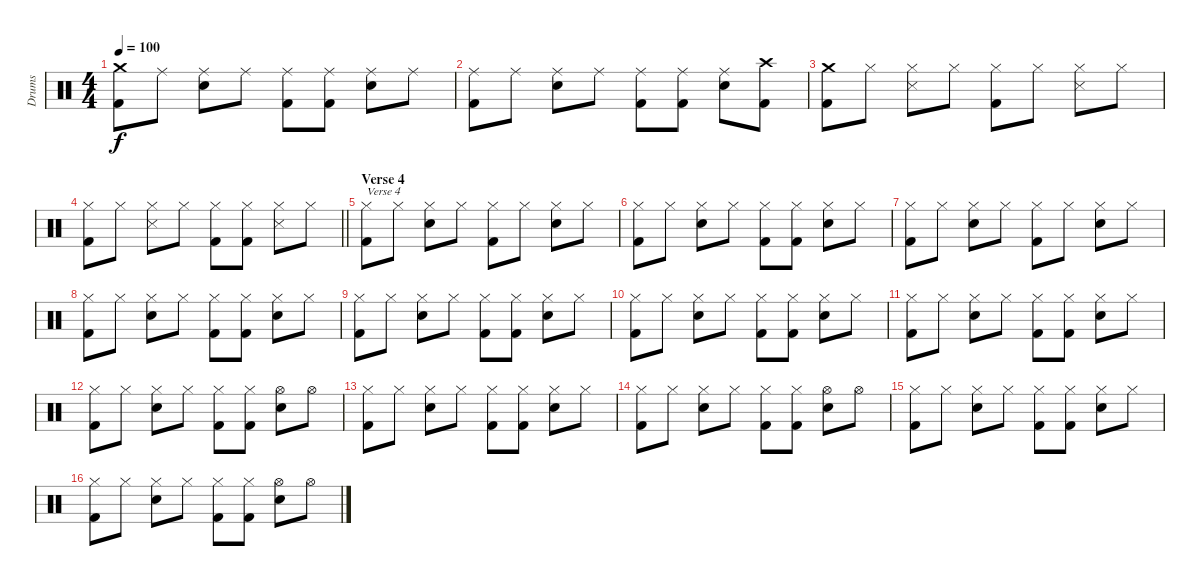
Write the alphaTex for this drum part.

\track ("Drums" "Drums") {instrument percussion}
\staff {score}
\articulation defaults
\ts (4 4)
\tempo 100
\clef neutral
\ks c
("Kick (hit) 2" "Crash medium (hit)").8{dy f} "Ride (middle)".8 ("Electric Snare (hit)" "Ride (middle)").8 "Ride (middle)".8 ("Kick (hit) 2" "Ride (middle)").8 ("Kick (hit) 2" "Ride (middle)").8 ("Electric Snare (hit)" "Ride (middle)").8 "Ride (middle)".8 |
("Kick (hit) 2" "Ride (middle)").8 "Ride (middle)".8 ("Electric Snare (hit)" "Ride (middle)").8 "Ride (middle)".8 ("Kick (hit) 2" "Ride (middle)").8 ("Kick (hit) 2" "Ride (middle)").8 ("Electric Snare (hit)" "Ride (middle)").8 ("Kick (hit) 2" "Crash high (hit)").8 |
("Kick (hit) 2" "Crash medium (hit)").8 "Hi-Hat (closed)".8 ("Snare (side stick) 3" "Hi-Hat (closed)").8 "Hi-Hat (closed)".8 ("Kick (hit) 2" "Hi-Hat (closed)").8 "Hi-Hat (closed)".8 ("Snare (side stick) 3" "Hi-Hat (closed)").8 "Hi-Hat (closed)".8 |
\barLineRight lightlight
("Kick (hit) 2" "Hi-Hat (closed)").8 "Hi-Hat (closed)".8 ("Snare (side stick) 3" "Hi-Hat (closed)").8 "Hi-Hat (closed)".8 ("Kick (hit) 2" "Hi-Hat (closed)").8 ("Kick (hit) 2" "Hi-Hat (closed)").8 ("Snare (side stick) 3" "Hi-Hat (closed)").8 "Hi-Hat (closed)".8 |
\section ("" "Verse 4")
("Kick (hit) 2" "Hi-Hat (closed)").8{txt "Verse 4"} "Hi-Hat (closed)".8 ("Electric Snare (hit)" "Hi-Hat (closed)").8 "Hi-Hat (closed)".8 ("Kick (hit) 2" "Hi-Hat (closed)").8 "Hi-Hat (closed)".8 ("Electric Snare (hit)" "Hi-Hat (closed)").8 "Hi-Hat (closed)".8 |
("Kick (hit) 2" "Hi-Hat (closed)").8 "Hi-Hat (closed)".8 ("Electric Snare (hit)" "Hi-Hat (closed)").8 "Hi-Hat (closed)".8 ("Kick (hit) 2" "Hi-Hat (closed)").8 ("Kick (hit) 2" "Hi-Hat (closed)").8 ("Electric Snare (hit)" "Hi-Hat (closed)").8 "Hi-Hat (closed)".8 |
("Kick (hit) 2" "Hi-Hat (closed)").8 "Hi-Hat (closed)".8 ("Electric Snare (hit)" "Hi-Hat (closed)").8 "Hi-Hat (closed)".8 ("Kick (hit) 2" "Hi-Hat (closed)").8 "Hi-Hat (closed)".8 ("Electric Snare (hit)" "Hi-Hat (closed)").8 "Hi-Hat (closed)".8 |
("Kick (hit) 2" "Hi-Hat (closed)").8 "Hi-Hat (closed)".8 ("Electric Snare (hit)" "Hi-Hat (closed)").8 "Hi-Hat (closed)".8 ("Kick (hit) 2" "Hi-Hat (closed)").8 ("Kick (hit) 2" "Hi-Hat (closed)").8 ("Electric Snare (hit)" "Hi-Hat (closed)").8 "Hi-Hat (closed)".8 |
("Kick (hit) 2" "Hi-Hat (closed)").8 "Hi-Hat (closed)".8 ("Electric Snare (hit)" "Hi-Hat (closed)").8 "Hi-Hat (closed)".8 ("Kick (hit) 2" "Hi-Hat (closed)").8 ("Kick (hit) 2" "Hi-Hat (closed)").8 ("Electric Snare (hit)" "Hi-Hat (closed)").8 "Hi-Hat (closed)".8 |
("Kick (hit) 2" "Hi-Hat (closed)").8 "Hi-Hat (closed)".8 ("Electric Snare (hit)" "Hi-Hat (closed)").8 "Hi-Hat (closed)".8 ("Kick (hit) 2" "Hi-Hat (closed)").8 ("Kick (hit) 2" "Hi-Hat (closed)").8 ("Electric Snare (hit)" "Hi-Hat (closed)").8 "Hi-Hat (closed)".8 |
("Kick (hit) 2" "Hi-Hat (closed)").8 "Hi-Hat (closed)".8 ("Electric Snare (hit)" "Hi-Hat (closed)").8 "Hi-Hat (closed)".8 ("Kick (hit) 2" "Hi-Hat (closed)").8 ("Kick (hit) 2" "Hi-Hat (closed)").8 ("Electric Snare (hit)" "Hi-Hat (closed)").8 "Hi-Hat (closed)".8 |
("Kick (hit) 2" "Hi-Hat (closed)").8 "Hi-Hat (closed)".8 ("Electric Snare (hit)" "Hi-Hat (closed)").8 "Hi-Hat (closed)".8 ("Kick (hit) 2" "Hi-Hat (closed)").8 ("Kick (hit) 2" "Hi-Hat (closed)").8 ("Electric Snare (hit)" "Hi-Hat (open)").8 "Hi-Hat (open)".8 |
("Kick (hit) 2" "Hi-Hat (closed)").8 "Hi-Hat (closed)".8 ("Electric Snare (hit)" "Hi-Hat (closed)").8 "Hi-Hat (closed)".8 ("Kick (hit) 2" "Hi-Hat (closed)").8 ("Kick (hit) 2" "Hi-Hat (closed)").8 ("Electric Snare (hit)" "Hi-Hat (closed)").8 "Hi-Hat (closed)".8 |
("Kick (hit) 2" "Hi-Hat (closed)").8 "Hi-Hat (closed)".8 ("Electric Snare (hit)" "Hi-Hat (closed)").8 "Hi-Hat (closed)".8 ("Kick (hit) 2" "Hi-Hat (closed)").8 ("Kick (hit) 2" "Hi-Hat (closed)").8 ("Electric Snare (hit)" "Hi-Hat (open)").8 "Hi-Hat (open)".8 |
("Kick (hit) 2" "Hi-Hat (closed)").8 "Hi-Hat (closed)".8 ("Electric Snare (hit)" "Hi-Hat (closed)").8 "Hi-Hat (closed)".8 ("Kick (hit) 2" "Hi-Hat (closed)").8 ("Kick (hit) 2" "Hi-Hat (closed)").8 ("Electric Snare (hit)" "Hi-Hat (closed)").8 "Hi-Hat (closed)".8 |
("Kick (hit) 2" "Hi-Hat (closed)").8 "Hi-Hat (closed)".8 ("Electric Snare (hit)" "Hi-Hat (closed)").8 "Hi-Hat (closed)".8 ("Kick (hit) 2" "Hi-Hat (closed)").8 ("Kick (hit) 2" "Hi-Hat (closed)").8 ("Electric Snare (hit)" "Hi-Hat (open)").8 "Hi-Hat (open)".8
